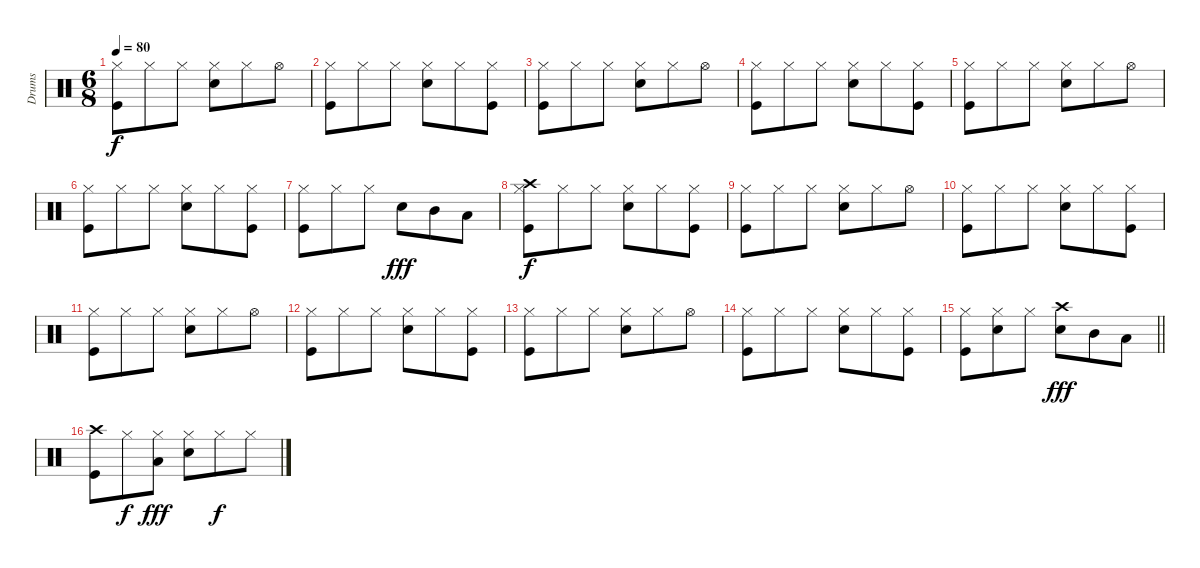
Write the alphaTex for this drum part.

\track ("Drums" "Drums") {instrument percussion}
\staff {score}
\articulation defaults
\ts (6 8)
\tempo 80
\clef neutral
\ks c
("Hi-Hat (closed)" "Kick (hit)").8{dy f} "Hi-Hat (closed)".8 "Hi-Hat (closed)".8 ("Hi-Hat (closed)" "Electric Snare (hit)").8 "Hi-Hat (closed)".8 "Hi-Hat (open)".8 |
("Hi-Hat (closed)" "Kick (hit)").8 "Hi-Hat (closed)".8 "Hi-Hat (closed)".8 ("Hi-Hat (closed)" "Electric Snare (hit)").8 "Hi-Hat (closed)".8 ("Hi-Hat (closed)" "Kick (hit)").8 |
("Hi-Hat (closed)" "Kick (hit)").8 "Hi-Hat (closed)".8 "Hi-Hat (closed)".8 ("Hi-Hat (closed)" "Electric Snare (hit)").8 "Hi-Hat (closed)".8 "Hi-Hat (open)".8 |
("Hi-Hat (closed)" "Kick (hit)").8 "Hi-Hat (closed)".8 "Hi-Hat (closed)".8 ("Hi-Hat (closed)" "Electric Snare (hit)").8 "Hi-Hat (closed)".8 ("Hi-Hat (closed)" "Kick (hit)").8 |
("Hi-Hat (closed)" "Kick (hit)").8 "Hi-Hat (closed)".8 "Hi-Hat (closed)".8 ("Hi-Hat (closed)" "Electric Snare (hit)").8 "Hi-Hat (closed)".8 "Hi-Hat (open)".8 |
("Hi-Hat (closed)" "Kick (hit)").8 "Hi-Hat (closed)".8 "Hi-Hat (closed)".8 ("Hi-Hat (closed)" "Electric Snare (hit)").8 "Hi-Hat (closed)".8 ("Hi-Hat (closed)" "Kick (hit)").8 |
("Hi-Hat (closed)" "Kick (hit)").8 "Hi-Hat (closed)".8 "Hi-Hat (closed)".8 "Electric Snare (hit)".8{dy fff} "Mid Tom (hit)".8 "Low Tom (hit)".8 |
("Hi-Hat (closed)" "Kick (hit)" "Crash high (hit)").8{dy f} "Hi-Hat (closed)".8 "Hi-Hat (closed)".8 ("Hi-Hat (closed)" "Electric Snare (hit)").8 "Hi-Hat (closed)".8 ("Hi-Hat (closed)" "Kick (hit)").8 |
("Hi-Hat (closed)" "Kick (hit)").8 "Hi-Hat (closed)".8 "Hi-Hat (closed)".8 ("Hi-Hat (closed)" "Electric Snare (hit)").8 "Hi-Hat (closed)".8 "Hi-Hat (open)".8 |
("Hi-Hat (closed)" "Kick (hit)").8 "Hi-Hat (closed)".8 "Hi-Hat (closed)".8 ("Hi-Hat (closed)" "Electric Snare (hit)").8 "Hi-Hat (closed)".8 ("Hi-Hat (closed)" "Kick (hit)").8 |
("Hi-Hat (closed)" "Kick (hit)").8 "Hi-Hat (closed)".8 "Hi-Hat (closed)".8 ("Hi-Hat (closed)" "Electric Snare (hit)").8 "Hi-Hat (closed)".8 "Hi-Hat (open)".8 |
("Hi-Hat (closed)" "Kick (hit)").8 "Hi-Hat (closed)".8 "Hi-Hat (closed)".8 ("Hi-Hat (closed)" "Electric Snare (hit)").8 "Hi-Hat (closed)".8 ("Hi-Hat (closed)" "Kick (hit)").8 |
("Hi-Hat (closed)" "Kick (hit)").8 "Hi-Hat (closed)".8 "Hi-Hat (closed)".8 ("Hi-Hat (closed)" "Electric Snare (hit)").8 "Hi-Hat (closed)".8 "Hi-Hat (open)".8 |
("Hi-Hat (closed)" "Kick (hit)").8 "Hi-Hat (closed)".8 "Hi-Hat (closed)".8 ("Hi-Hat (closed)" "Electric Snare (hit)").8 "Hi-Hat (closed)".8 ("Hi-Hat (closed)" "Kick (hit)").8 |
\barLineRight lightlight
("Hi-Hat (closed)" "Kick (hit)").8 ("Hi-Hat (closed)" "Electric Snare (hit)").8 "Hi-Hat (closed)".8 ("Crash high (hit)" "Electric Snare (hit)").8{dy fff} "Mid Tom (hit)".8 "Low Tom (hit)".8 |
("Crash high (hit)" "Kick (hit)").8 "Hi-Hat (closed)".8{dy f} ("Hi-Hat (closed)" "Low Tom (hit)").8{dy fff} ("Hi-Hat (closed)" "Electric Snare (hit)").8 "Hi-Hat (closed)".8{dy f} "Hi-Hat (closed)".8
